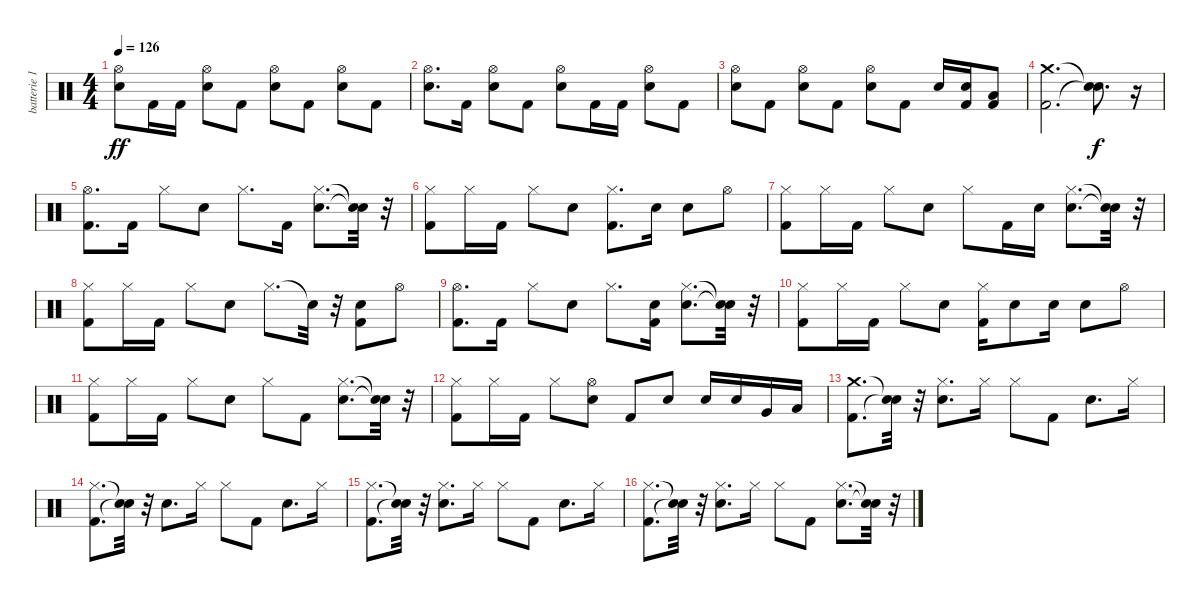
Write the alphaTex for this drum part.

\track ("batterie 1" "batterie 1") {instrument percussion}
\staff {score}
\articulation defaults
\ts (4 4)
\tempo 126
\clef neutral
\ks c
("Electric Snare (hit)" "Hi-Hat (open)").8{dy ff} "Kick (hit) 2".16 "Kick (hit) 2".16 ("Electric Snare (hit)" "Hi-Hat (open)").8 "Kick (hit) 2".8 ("Electric Snare (hit)" "Hi-Hat (open)").8 "Kick (hit) 2".8 ("Electric Snare (hit)" "Hi-Hat (open)").8 "Kick (hit) 2".8 |
("Electric Snare (hit)" "Hi-Hat (open)").8{d} "Kick (hit) 2".16 ("Electric Snare (hit)" "Hi-Hat (open)").8 "Kick (hit) 2".8 ("Electric Snare (hit)" "Hi-Hat (open)").8 "Kick (hit) 2".16 "Kick (hit) 2".16 ("Electric Snare (hit)" "Hi-Hat (open)").8 "Kick (hit) 2".8 |
("Electric Snare (hit)" "Hi-Hat (open)").8 "Kick (hit) 2".8 ("Electric Snare (hit)" "Hi-Hat (open)").8 "Kick (hit) 2".8 ("Electric Snare (hit)" "Hi-Hat (open)").8 "Kick (hit) 2".8 "Electric Snare (hit)".16 ("Kick (hit) 2" "Electric Snare (hit)").16 ("Kick (hit) 2" "Low Tom (hit)").8 |
("Kick (hit) 2" "Crash medium (hit)").2{d} ("Snare (hit)"{t} "Snare (hit)"{t}).8{d dy f} r.16 |
("Kick (hit) 2" "Hi-Hat (open)").8{d} "Kick (hit) 2".16 "Hi-Hat (closed)".8 "Electric Snare (hit)".8 "Hi-Hat (closed)".8{d} "Kick (hit) 2".16 ("Electric Snare (hit)" "Hi-Hat (closed)").8{d} ("Snare (hit)"{t} "Snare (hit)"{t}).32 r.32 |
("Kick (hit) 2" "Hi-Hat (closed)").8 "Hi-Hat (closed)".16 "Kick (hit) 2".16 "Hi-Hat (closed)".8 "Electric Snare (hit)".8 ("Kick (hit) 2" "Hi-Hat (closed)").8{d} "Electric Snare (hit)".16 "Electric Snare (hit)".8 "Hi-Hat (open)".8 |
("Kick (hit) 2" "Hi-Hat (closed)").8 "Hi-Hat (closed)".16 "Kick (hit) 2".16 "Hi-Hat (closed)".8 "Electric Snare (hit)".8 "Hi-Hat (closed)".8 "Kick (hit) 2".16 "Electric Snare (hit)".16 ("Electric Snare (hit)" "Hi-Hat (closed)").8{d} ("Snare (hit)"{t} "Snare (hit)"{t}).32 r.32 |
("Kick (hit) 2" "Hi-Hat (closed)").8 "Hi-Hat (closed)".16 "Kick (hit) 2".16 "Hi-Hat (closed)".8 "Electric Snare (hit)".8 "Hi-Hat (closed)".8{d} "Snare (hit)"{t}.32 r.32 ("Kick (hit) 2" "Electric Snare (hit)").8 "Hi-Hat (open)".8 |
("Kick (hit) 2" "Hi-Hat (open)").8{d} "Kick (hit) 2".16 "Hi-Hat (closed)".8 "Electric Snare (hit)".8 "Hi-Hat (closed)".8{d} ("Kick (hit) 2" "Electric Snare (hit)").16 ("Electric Snare (hit)" "Hi-Hat (closed)").8{d} ("Snare (hit)"{t} "Snare (hit)"{t}).32 r.32 |
("Kick (hit) 2" "Hi-Hat (closed)").8 "Hi-Hat (closed)".16 "Kick (hit) 2".16 "Hi-Hat (closed)".8 "Electric Snare (hit)".8 ("Kick (hit) 2" "Hi-Hat (closed)").16 "Electric Snare (hit)".8 "Electric Snare (hit)".16 "Electric Snare (hit)".8 "Hi-Hat (open)".8 |
("Kick (hit) 2" "Hi-Hat (closed)").8 "Hi-Hat (closed)".16 "Kick (hit) 2".16 "Hi-Hat (closed)".8 "Electric Snare (hit)".8 "Hi-Hat (closed)".8 "Kick (hit) 2".8 ("Electric Snare (hit)" "Hi-Hat (closed)").8{d} ("Snare (hit)"{t} "Snare (hit)"{t}).32 r.32 |
("Kick (hit) 2" "Hi-Hat (closed)").8 "Hi-Hat (closed)".16 "Kick (hit) 2".16 "Hi-Hat (closed)".8 ("Electric Snare (hit)" "Hi-Hat (open)").8 "Kick (hit) 2".8 "Electric Snare (hit)".8 "Electric Snare (hit)".16 "Electric Snare (hit)".16 "Very Low Tom (hit)".16 "Low Floor Tom (hit)".16 |
("Kick (hit) 2" "Crash medium (hit)").8{d} ("Snare (hit)"{t} "Snare (hit)"{t}).32 r.32 ("Electric Snare (hit)" "Hi-Hat (closed)").8{d} "Hi-Hat (closed)".16 "Hi-Hat (closed)".8 "Kick (hit) 2".8 "Electric Snare (hit)".8{d} "Hi-Hat (closed)".16 |
("Kick (hit) 2" "Hi-Hat (closed)").8{d} ("Snare (hit)"{t} "Snare (hit)"{t}).32 r.32 "Electric Snare (hit)".8{d} "Hi-Hat (closed)".16 "Hi-Hat (closed)".8 "Kick (hit) 2".8 "Electric Snare (hit)".8{d} "Hi-Hat (closed)".16 |
("Kick (hit) 2" "Hi-Hat (closed)").8{d} ("Snare (hit)"{t} "Snare (hit)"{t}).32 r.32 ("Electric Snare (hit)" "Hi-Hat (closed)").8{d} "Hi-Hat (closed)".16 "Hi-Hat (closed)".8 "Kick (hit) 2".8 "Electric Snare (hit)".8{d} "Hi-Hat (closed)".16 |
("Kick (hit) 2" "Hi-Hat (closed)").8{d} ("Snare (hit)"{t} "Snare (hit)"{t}).32 r.32 ("Electric Snare (hit)" "Hi-Hat (closed)").8{d} "Hi-Hat (closed)".16 "Hi-Hat (closed)".8 "Kick (hit) 2".8 ("Electric Snare (hit)" "Hi-Hat (closed)").8{d} ("Snare (hit)"{t} "Snare (hit)"{t}).32 r.32
